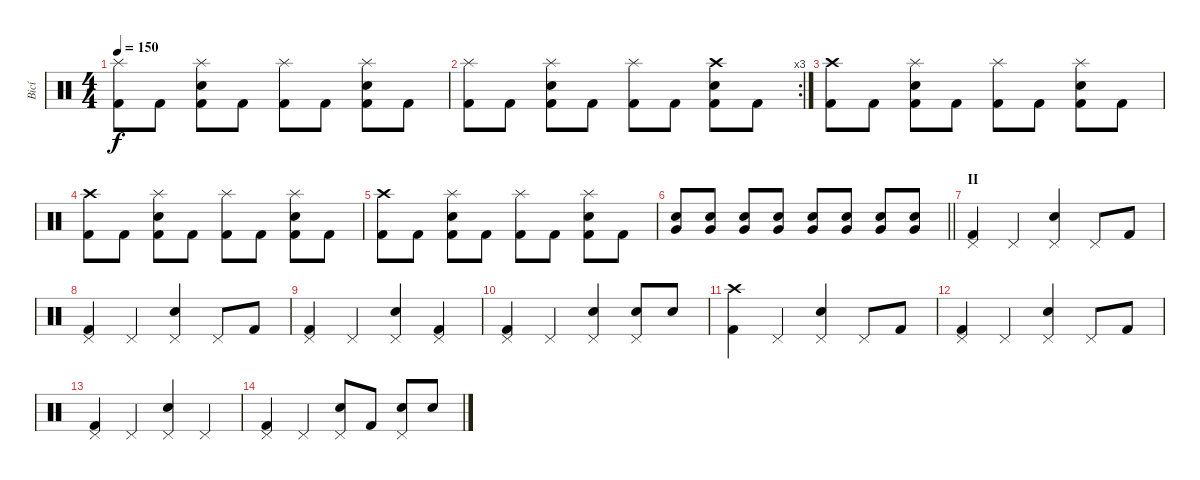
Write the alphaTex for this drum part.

\track ("Bicí" "Bicí") {instrument percussion}
\staff {score}
\articulation defaults
\ts (4 4)
\tempo 150
\clef neutral
\ks c
("Splash (hit)" "Kick (hit) 2").8{dy f} "Kick (hit) 2".8 ("Splash (hit)" "Electric Snare (hit)" "Kick (hit) 2").8 "Kick (hit) 2".8 ("Splash (hit)" "Kick (hit) 2").8 "Kick (hit) 2".8 ("Splash (hit)" "Electric Snare (hit)" "Kick (hit) 2").8 "Kick (hit) 2".8 |
\rc 3
("Splash (hit)" "Kick (hit) 2").8 "Kick (hit) 2".8 ("Splash (hit)" "Electric Snare (hit)" "Kick (hit) 2").8 "Kick (hit) 2".8 ("Splash (hit)" "Kick (hit) 2").8 "Kick (hit) 2".8 ("Crash high (hit)" "Electric Snare (hit)" "Kick (hit) 2").8 "Kick (hit) 2".8 |
("Crash high (hit)" "Kick (hit) 2").8 "Kick (hit) 2".8 ("Splash (hit)" "Electric Snare (hit)" "Kick (hit) 2").8 "Kick (hit) 2".8 ("Splash (hit)" "Kick (hit) 2").8 "Kick (hit) 2".8 ("Splash (hit)" "Electric Snare (hit)" "Kick (hit) 2").8 "Kick (hit) 2".8 |
("Crash high (hit)" "Kick (hit) 2").8 "Kick (hit) 2".8 ("Splash (hit)" "Electric Snare (hit)" "Kick (hit) 2").8 "Kick (hit) 2".8 ("Splash (hit)" "Kick (hit) 2").8 "Kick (hit) 2".8 ("Splash (hit)" "Electric Snare (hit)" "Kick (hit) 2").8 "Kick (hit) 2".8 |
("Crash high (hit)" "Kick (hit) 2").8 "Kick (hit) 2".8 ("Splash (hit)" "Electric Snare (hit)" "Kick (hit) 2").8 "Kick (hit) 2".8 ("Splash (hit)" "Kick (hit) 2").8 "Kick (hit) 2".8 ("Splash (hit)" "Electric Snare (hit)" "Kick (hit) 2").8 "Kick (hit) 2".8 |
\barLineRight lightlight
("Very Low Tom (hit)" "Electric Snare (hit)").8 ("Very Low Tom (hit)" "Electric Snare (hit)").8 ("Very Low Tom (hit)" "Electric Snare (hit)").8 ("Very Low Tom (hit)" "Electric Snare (hit)").8 ("Very Low Tom (hit)" "Electric Snare (hit)").8 ("Very Low Tom (hit)" "Electric Snare (hit)").8 ("Very Low Tom (hit)" "Electric Snare (hit)").8 ("Very Low Tom (hit)" "Electric Snare (hit)").8 |
\section ("" "II")
("Pedal Hi-Hat (hit)" "Kick (hit) 2").4 "Pedal Hi-Hat (hit)".4 ("Pedal Hi-Hat (hit)" "Electric Snare (hit)").4 "Pedal Hi-Hat (hit)".8 "Kick (hit) 2".8 |
("Pedal Hi-Hat (hit)" "Kick (hit) 2").4 "Pedal Hi-Hat (hit)".4 ("Pedal Hi-Hat (hit)" "Electric Snare (hit)").4 "Pedal Hi-Hat (hit)".8 "Kick (hit) 2".8 |
("Pedal Hi-Hat (hit)" "Kick (hit) 2").4 "Pedal Hi-Hat (hit)".4 ("Pedal Hi-Hat (hit)" "Electric Snare (hit)").4 ("Pedal Hi-Hat (hit)" "Kick (hit) 2").4 |
("Pedal Hi-Hat (hit)" "Kick (hit) 2").4 "Pedal Hi-Hat (hit)".4 ("Pedal Hi-Hat (hit)" "Electric Snare (hit)").4 ("Pedal Hi-Hat (hit)" "Electric Snare (hit)").8 "Electric Snare (hit)".8 |
("Crash high (hit)" "Kick (hit) 2").4 "Pedal Hi-Hat (hit)".4 ("Pedal Hi-Hat (hit)" "Electric Snare (hit)").4 "Pedal Hi-Hat (hit)".8 "Kick (hit) 2".8 |
("Pedal Hi-Hat (hit)" "Kick (hit) 2").4 "Pedal Hi-Hat (hit)".4 ("Pedal Hi-Hat (hit)" "Electric Snare (hit)").4 "Pedal Hi-Hat (hit)".8 "Kick (hit) 2".8 |
("Pedal Hi-Hat (hit)" "Kick (hit) 2").4 "Pedal Hi-Hat (hit)".4 ("Pedal Hi-Hat (hit)" "Electric Snare (hit)").4 "Pedal Hi-Hat (hit)".4 |
("Pedal Hi-Hat (hit)" "Kick (hit) 2").4 "Pedal Hi-Hat (hit)".4 ("Pedal Hi-Hat (hit)" "Electric Snare (hit)").8 "Kick (hit) 2".8 ("Pedal Hi-Hat (hit)" "Electric Snare (hit)").8 "Electric Snare (hit)".8
